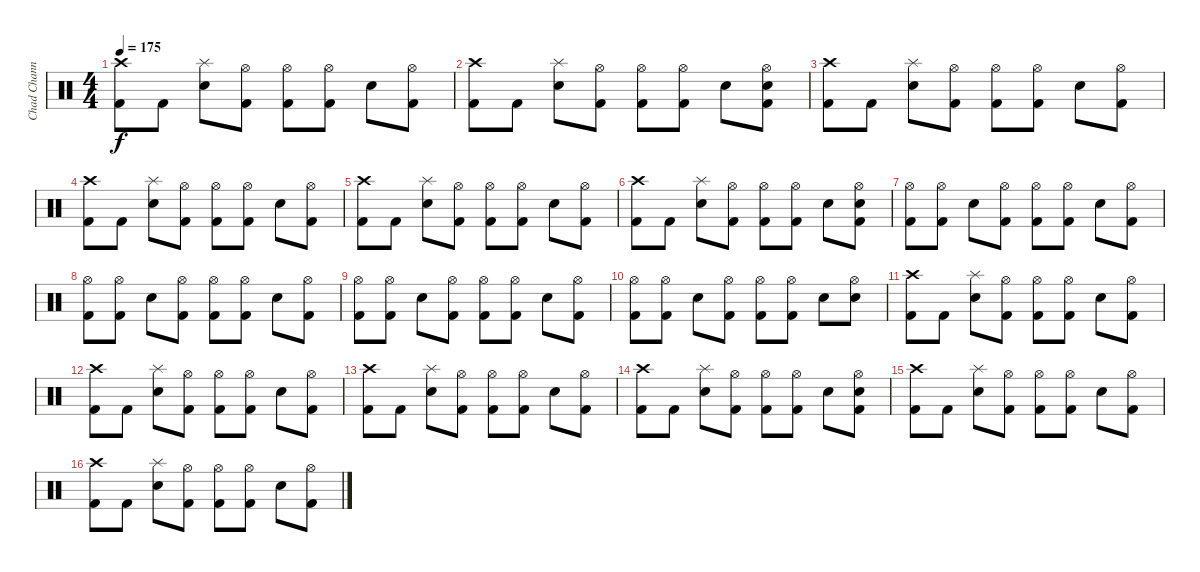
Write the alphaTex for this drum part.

\track ("Chad Channing" "Chad Chann") {instrument percussion}
\staff {score}
\articulation defaults
\ts (4 4)
\tempo 175
\clef neutral
\ks c
("Crash high (hit)" "Kick (hit) 2").8{dy f} "Kick (hit) 2".8 ("Splash (hit)" "Snare (hit) 2").8 ("Hi-Hat (open)" "Kick (hit) 2").8 ("Hi-Hat (open)" "Kick (hit) 2").8 ("Hi-Hat (open)" "Kick (hit) 2").8 "Snare (hit) 2".8 ("Hi-Hat (open)" "Kick (hit) 2").8 |
("Crash high (hit)" "Kick (hit) 2").8 "Kick (hit) 2".8 ("Splash (hit)" "Snare (hit) 2").8 ("Hi-Hat (open)" "Kick (hit) 2").8 ("Hi-Hat (open)" "Kick (hit) 2").8 ("Hi-Hat (open)" "Kick (hit) 2").8 "Snare (hit) 2".8 ("Hi-Hat (open)" "Snare (hit) 2" "Kick (hit) 2").8 |
("Crash high (hit)" "Kick (hit) 2").8 "Kick (hit) 2".8 ("Splash (hit)" "Snare (hit) 2").8 ("Hi-Hat (open)" "Kick (hit) 2").8 ("Hi-Hat (open)" "Kick (hit) 2").8 ("Hi-Hat (open)" "Kick (hit) 2").8 "Snare (hit) 2".8 ("Hi-Hat (open)" "Kick (hit) 2").8 |
("Crash high (hit)" "Kick (hit) 2").8 "Kick (hit) 2".8 ("Splash (hit)" "Snare (hit) 2").8 ("Hi-Hat (open)" "Kick (hit) 2").8 ("Hi-Hat (open)" "Kick (hit) 2").8 ("Hi-Hat (open)" "Kick (hit) 2").8 "Snare (hit) 2".8 ("Hi-Hat (open)" "Kick (hit) 2").8 |
("Crash high (hit)" "Kick (hit) 2").8 "Kick (hit) 2".8 ("Splash (hit)" "Snare (hit) 2").8 ("Hi-Hat (open)" "Kick (hit) 2").8 ("Hi-Hat (open)" "Kick (hit) 2").8 ("Hi-Hat (open)" "Kick (hit) 2").8 "Snare (hit) 2".8 ("Hi-Hat (open)" "Kick (hit) 2").8 |
("Crash high (hit)" "Kick (hit) 2").8 "Kick (hit) 2".8 ("Splash (hit)" "Snare (hit) 2").8 ("Hi-Hat (open)" "Kick (hit) 2").8 ("Hi-Hat (open)" "Kick (hit) 2").8 ("Hi-Hat (open)" "Kick (hit) 2").8 "Snare (hit) 2".8 ("Hi-Hat (open)" "Snare (hit) 2" "Kick (hit) 2").8 |
("Hi-Hat (open)" "Kick (hit) 2").8 ("Hi-Hat (open)" "Kick (hit) 2").8 "Snare (hit) 2".8 ("Hi-Hat (open)" "Kick (hit) 2").8 ("Hi-Hat (open)" "Kick (hit) 2").8 ("Hi-Hat (open)" "Kick (hit) 2").8 "Snare (hit) 2".8 ("Hi-Hat (open)" "Kick (hit) 2").8 |
("Hi-Hat (open)" "Kick (hit) 2").8 ("Hi-Hat (open)" "Kick (hit) 2").8 "Snare (hit) 2".8 ("Hi-Hat (open)" "Kick (hit) 2").8 ("Hi-Hat (open)" "Kick (hit) 2").8 ("Hi-Hat (open)" "Kick (hit) 2").8 "Snare (hit) 2".8 ("Hi-Hat (open)" "Kick (hit) 2").8 |
("Hi-Hat (open)" "Kick (hit) 2").8 ("Hi-Hat (open)" "Kick (hit) 2").8 "Snare (hit) 2".8 ("Hi-Hat (open)" "Kick (hit) 2").8 ("Hi-Hat (open)" "Kick (hit) 2").8 ("Hi-Hat (open)" "Kick (hit) 2").8 "Snare (hit) 2".8 ("Hi-Hat (open)" "Kick (hit) 2").8 |
("Hi-Hat (open)" "Kick (hit) 2").8 ("Hi-Hat (open)" "Kick (hit) 2").8 "Snare (hit) 2".8 ("Hi-Hat (open)" "Kick (hit) 2").8 ("Hi-Hat (open)" "Kick (hit) 2").8 ("Hi-Hat (open)" "Kick (hit) 2").8 "Snare (hit) 2".8 ("Hi-Hat (open)" "Snare (hit) 2").8 |
("Crash high (hit)" "Kick (hit) 2").8 "Kick (hit) 2".8 ("Splash (hit)" "Snare (hit) 2").8 ("Hi-Hat (open)" "Kick (hit) 2").8 ("Hi-Hat (open)" "Kick (hit) 2").8 ("Hi-Hat (open)" "Kick (hit) 2").8 "Snare (hit) 2".8 ("Hi-Hat (open)" "Kick (hit) 2").8 |
("Crash high (hit)" "Kick (hit) 2").8 "Kick (hit) 2".8 ("Splash (hit)" "Snare (hit) 2").8 ("Hi-Hat (open)" "Kick (hit) 2").8 ("Hi-Hat (open)" "Kick (hit) 2").8 ("Hi-Hat (open)" "Kick (hit) 2").8 "Snare (hit) 2".8 ("Hi-Hat (open)" "Kick (hit) 2").8 |
("Crash high (hit)" "Kick (hit) 2").8 "Kick (hit) 2".8 ("Splash (hit)" "Snare (hit) 2").8 ("Hi-Hat (open)" "Kick (hit) 2").8 ("Hi-Hat (open)" "Kick (hit) 2").8 ("Hi-Hat (open)" "Kick (hit) 2").8 "Snare (hit) 2".8 ("Hi-Hat (open)" "Kick (hit) 2").8 |
("Crash high (hit)" "Kick (hit) 2").8 "Kick (hit) 2".8 ("Splash (hit)" "Snare (hit) 2").8 ("Hi-Hat (open)" "Kick (hit) 2").8 ("Hi-Hat (open)" "Kick (hit) 2").8 ("Hi-Hat (open)" "Kick (hit) 2").8 "Snare (hit) 2".8 ("Hi-Hat (open)" "Snare (hit) 2" "Kick (hit) 2").8 |
("Crash high (hit)" "Kick (hit) 2").8 "Kick (hit) 2".8 ("Splash (hit)" "Snare (hit) 2").8 ("Hi-Hat (open)" "Kick (hit) 2").8 ("Hi-Hat (open)" "Kick (hit) 2").8 ("Hi-Hat (open)" "Kick (hit) 2").8 "Snare (hit) 2".8 ("Hi-Hat (open)" "Kick (hit) 2").8 |
("Crash high (hit)" "Kick (hit) 2").8 "Kick (hit) 2".8 ("Splash (hit)" "Snare (hit) 2").8 ("Hi-Hat (open)" "Kick (hit) 2").8 ("Hi-Hat (open)" "Kick (hit) 2").8 ("Hi-Hat (open)" "Kick (hit) 2").8 "Snare (hit) 2".8 ("Hi-Hat (open)" "Kick (hit) 2").8
